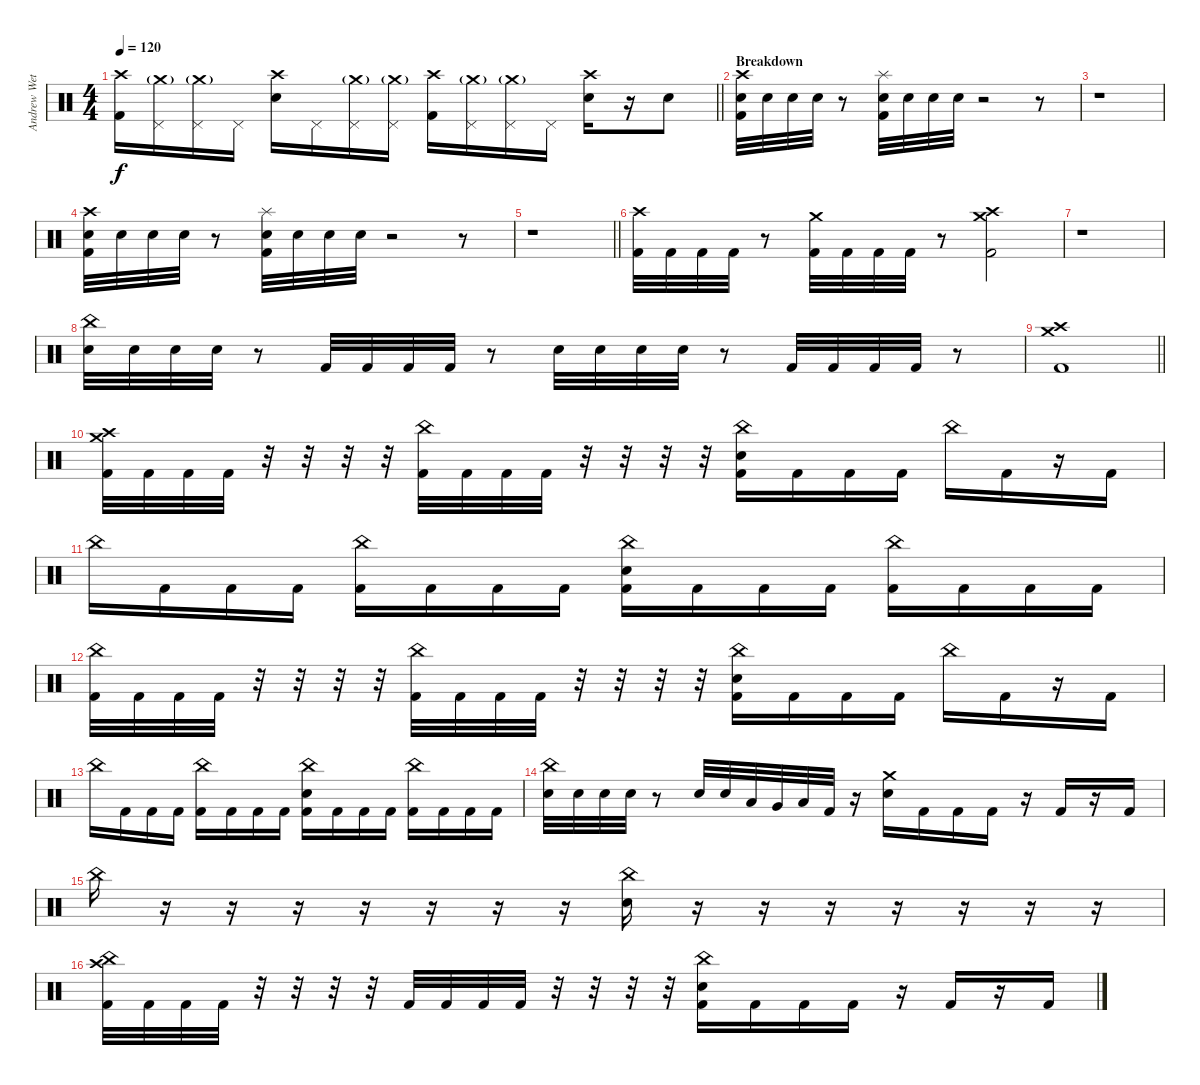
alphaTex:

\track ("Andrew Wetzel - Drums" "Andrew Wet") {instrument percussion}
\staff {score}
\articulation defaults
\ts (4 4)
\tempo 120
\clef neutral
\barLineRight lightlight
\ks c
("Crash high (hit)" "Kick (hit) 2").16{dy f} ("Pedal Hi-Hat (hit)" "Crash medium (hit)"{g}).16 ("Pedal Hi-Hat (hit)" "Crash medium (hit)"{g}).16 "Pedal Hi-Hat (hit)".16 ("Crash high (hit)" "Electric Snare (hit)").16 "Pedal Hi-Hat (hit)".16 ("Pedal Hi-Hat (hit)" "Crash medium (hit)"{g}).16 ("Pedal Hi-Hat (hit)" "Crash medium (hit)"{g}).16 ("Crash high (hit)" "Kick (hit) 2").16 ("Pedal Hi-Hat (hit)" "Crash medium (hit)"{g}).16 ("Pedal Hi-Hat (hit)" "Crash medium (hit)"{g}).16 "Pedal Hi-Hat (hit)".16 ("Crash high (hit)" "Electric Snare (hit)").16 r.16 "Electric Snare (hit)".8 |
\section ("" "Breakdown")
("Crash high (hit)" "Electric Snare (hit)" "Kick (hit) 2").32 "Electric Snare (hit)".32 "Electric Snare (hit)".32 "Electric Snare (hit)".32 r.8 ("Splash (hit)" "Electric Snare (hit)" "Kick (hit) 2").32 "Electric Snare (hit)".32 "Electric Snare (hit)".32 "Electric Snare (hit)".32 r.2 r.8 |
r.1 |
("Crash high (hit)" "Electric Snare (hit)" "Kick (hit) 2").32 "Electric Snare (hit)".32 "Electric Snare (hit)".32 "Electric Snare (hit)".32 r.8 ("Splash (hit)" "Electric Snare (hit)" "Kick (hit) 2").32 "Electric Snare (hit)".32 "Electric Snare (hit)".32 "Electric Snare (hit)".32 r.2 r.8 |
\barLineRight lightlight
r.1 |
("Crash high (hit)" "Kick (hit) 2").32 "Kick (hit) 2".32 "Kick (hit) 2".32 "Kick (hit) 2".32 r.8 ("Crash medium (hit)" "Kick (hit) 2").32 "Kick (hit) 2".32 "Kick (hit) 2".32 "Kick (hit) 2".32 r.8 ("Crash high (hit)" "Crash medium (hit)" "Kick (hit) 2").2 |
r.1 |
("China (hit)" "Electric Snare (hit)").32 "Electric Snare (hit)".32 "Electric Snare (hit)".32 "Electric Snare (hit)".32 r.8 "Kick (hit) 2".32 "Kick (hit) 2".32 "Kick (hit) 2".32 "Kick (hit) 2".32 r.8 "Electric Snare (hit)".32 "Electric Snare (hit)".32 "Electric Snare (hit)".32 "Electric Snare (hit)".32 r.8 "Kick (hit) 2".32 "Kick (hit) 2".32 "Kick (hit) 2".32 "Kick (hit) 2".32 r.8 |
\barLineRight lightlight
("Crash high (hit)" "Crash medium (hit)" "Kick (hit) 2").1 |
("Crash high (hit)" "Crash medium (hit)" "Kick (hit) 2").32{volume 16} "Kick (hit) 2".32 "Kick (hit) 2".32 "Kick (hit) 2".32 r.32 r.32 r.32 r.32 ("China (hit)" "Kick (hit) 2").32 "Kick (hit) 2".32 "Kick (hit) 2".32 "Kick (hit) 2".32 r.32 r.32 r.32 r.32 ("China (hit)" "Electric Snare (hit)" "Kick (hit) 2").16 "Kick (hit) 2".16 "Kick (hit) 2".16 "Kick (hit) 2".16 "China (hit)".16 "Kick (hit) 2".16 r.16 "Kick (hit) 2".16 |
"China (hit)".16 "Kick (hit) 2".16 "Kick (hit) 2".16 "Kick (hit) 2".16 ("China (hit)" "Kick (hit) 2").16 "Kick (hit) 2".16 "Kick (hit) 2".16 "Kick (hit) 2".16 ("China (hit)" "Electric Snare (hit)" "Kick (hit) 2").16 "Kick (hit) 2".16 "Kick (hit) 2".16 "Kick (hit) 2".16 ("China (hit)" "Kick (hit) 2").16 "Kick (hit) 2".16 "Kick (hit) 2".16 "Kick (hit) 2".16 |
("China (hit)" "Kick (hit) 2").32 "Kick (hit) 2".32 "Kick (hit) 2".32 "Kick (hit) 2".32 r.32 r.32 r.32 r.32 ("China (hit)" "Kick (hit) 2").32 "Kick (hit) 2".32 "Kick (hit) 2".32 "Kick (hit) 2".32 r.32 r.32 r.32 r.32 ("China (hit)" "Electric Snare (hit)" "Kick (hit) 2").16 "Kick (hit) 2".16 "Kick (hit) 2".16 "Kick (hit) 2".16 "China (hit)".16 "Kick (hit) 2".16 r.16 "Kick (hit) 2".16 |
"China (hit)".16 "Kick (hit) 2".16 "Kick (hit) 2".16 "Kick (hit) 2".16 ("China (hit)" "Kick (hit) 2").16 "Kick (hit) 2".16 "Kick (hit) 2".16 "Kick (hit) 2".16 ("China (hit)" "Electric Snare (hit)" "Kick (hit) 2").16 "Kick (hit) 2".16 "Kick (hit) 2".16 "Kick (hit) 2".16 ("China (hit)" "Kick (hit) 2").16 "Kick (hit) 2".16 "Kick (hit) 2".16 "Kick (hit) 2".16 |
("China (hit)" "Electric Snare (hit)").32 "Electric Snare (hit)".32 "Electric Snare (hit)".32 "Electric Snare (hit)".32 r.8 "Electric Snare (hit)".32 "Electric Snare (hit)".32 "Low Tom (hit)".32 "Very Low Tom (hit)".32 "Low Floor Tom (hit)".32 "Kick (hit) 2".32 r.16 ("Crash medium (hit)" "Electric Snare (hit)").16 "Kick (hit) 2".16 "Kick (hit) 2".16 "Kick (hit) 2".16 r.16 "Kick (hit) 2".16 r.16 "Kick (hit) 2".16 |
"China (hit)".16 r.16 r.16 r.16 r.16 r.16 r.16 r.16 ("China (hit)" "Electric Snare (hit)").16 r.16 r.16 r.16 r.16 r.16 r.16 r.16 |
("China (hit)" "Crash high (hit)" "Kick (hit) 2").32 "Kick (hit) 2".32 "Kick (hit) 2".32 "Kick (hit) 2".32 r.32 r.32 r.32 r.32 "Kick (hit) 2".32 "Kick (hit) 2".32 "Kick (hit) 2".32 "Kick (hit) 2".32 r.32 r.32 r.32 r.32 ("China (hit)" "Electric Snare (hit)" "Kick (hit) 2").16 "Kick (hit) 2".16 "Kick (hit) 2".16 "Kick (hit) 2".16 r.16 "Kick (hit) 2".16 r.16 "Kick (hit) 2".16
